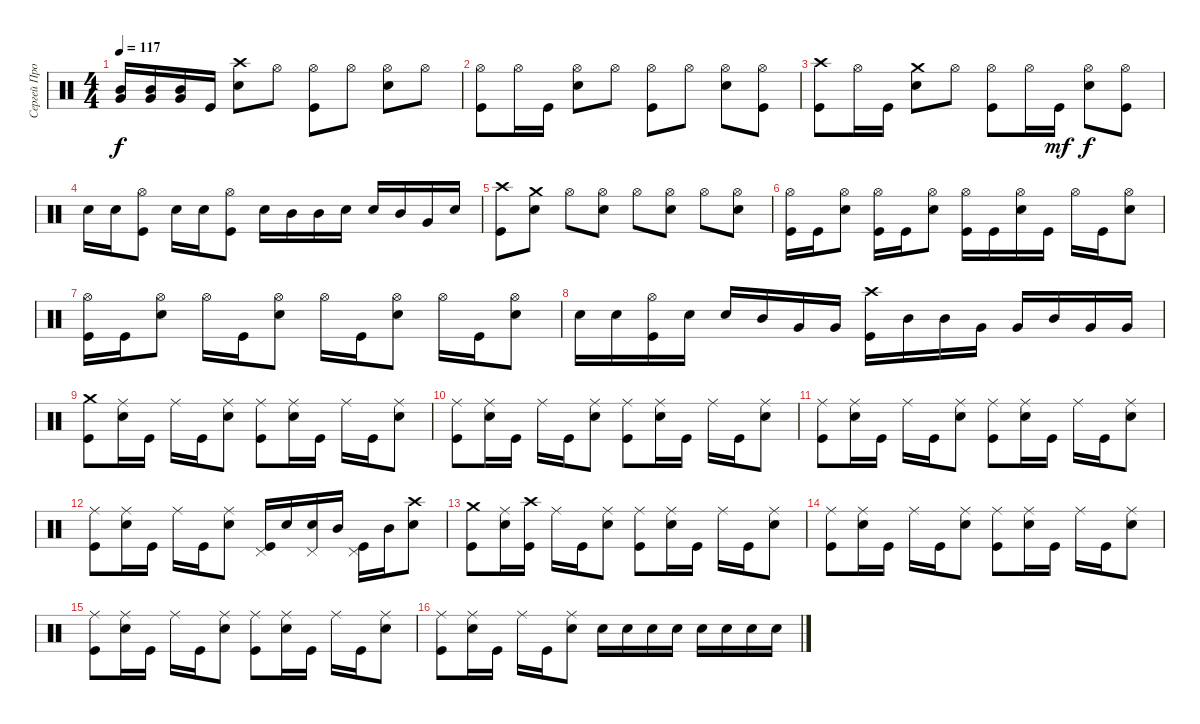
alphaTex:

\track ("Сергей Прокофьев" "Сергей Про") {instrument percussion}
\staff {score}
\articulation defaults
\ts (4 4)
\tempo 117
\clef neutral
\ks c
("Mid Tom (hit)" "Very Low Tom (hit)").16{dy f} ("Mid Tom (hit)" "Very Low Tom (hit)").16 ("Mid Tom (hit)" "Very Low Tom (hit)").16 "Kick (hit)".16 ("Crash high (hit)" "Electric Snare (hit)").8 "Hi-Hat (open)".8 ("Hi-Hat (open)" "Kick (hit)").8 "Hi-Hat (open)".8 ("Hi-Hat (open)" "Electric Snare (hit)").8 "Hi-Hat (open)".8 |
("Hi-Hat (open)" "Kick (hit)").8 "Hi-Hat (open)".16 "Kick (hit)".16 ("Hi-Hat (open)" "Electric Snare (hit)").8 "Hi-Hat (open)".8 ("Hi-Hat (open)" "Kick (hit)").8 "Hi-Hat (open)".8 ("Hi-Hat (open)" "Electric Snare (hit)").8 ("Hi-Hat (open)" "Kick (hit)").8 |
("Crash high (hit)" "Kick (hit)").8 "Hi-Hat (open)".16 "Kick (hit)".16 ("Crash medium (hit)" "Electric Snare (hit)").8 "Hi-Hat (open)".8 ("Hi-Hat (open)" "Kick (hit)").8 "Hi-Hat (open)".16 "Kick (hit)".16{dy mf} ("Hi-Hat (open)" "Electric Snare (hit)").8{dy f} ("Hi-Hat (open)" "Kick (hit)").8 |
"Electric Snare (hit)".16 "Electric Snare (hit)".16 ("Hi-Hat (open)" "Kick (hit)").8 "Electric Snare (hit)".16 "Electric Snare (hit)".16 ("Hi-Hat (open)" "Kick (hit)").8 "Electric Snare (hit)".16 "Mid Tom (hit)".16 "Mid Tom (hit)".16 "Electric Snare (hit)".16 "Electric Snare (hit)".16 "Mid Tom (hit)".16 "Very Low Tom (hit)".16 "Electric Snare (hit)".16 |
("Crash high (hit)" "Kick (hit)").8 ("Crash medium (hit)" "Electric Snare (hit)").8 "Hi-Hat (open)".8 ("Hi-Hat (open)" "Electric Snare (hit)").8 "Hi-Hat (open)".8 ("Hi-Hat (open)" "Electric Snare (hit)").8 "Hi-Hat (open)".8 ("Hi-Hat (open)" "Electric Snare (hit)").8 |
("Hi-Hat (open)" "Kick (hit)").16 "Kick (hit)".16 ("Hi-Hat (open)" "Electric Snare (hit)").8 ("Hi-Hat (open)" "Kick (hit)").16 "Kick (hit)".16 ("Hi-Hat (open)" "Electric Snare (hit)").8 ("Hi-Hat (open)" "Kick (hit)").16 "Kick (hit)".16 ("Hi-Hat (open)" "Electric Snare (hit)").16 "Kick (hit)".16 "Hi-Hat (open)".16 "Kick (hit)".16 ("Hi-Hat (open)" "Electric Snare (hit)").8 |
("Hi-Hat (open)" "Kick (hit)").16 "Kick (hit)".16 ("Hi-Hat (open)" "Electric Snare (hit)").8 "Hi-Hat (open)".16 "Kick (hit)".16 ("Hi-Hat (open)" "Electric Snare (hit)").8 "Hi-Hat (open)".16 "Kick (hit)".16 ("Hi-Hat (open)" "Electric Snare (hit)").8 "Hi-Hat (open)".16 "Kick (hit)".16 ("Hi-Hat (open)" "Electric Snare (hit)").8 |
"Electric Snare (hit)".16 "Electric Snare (hit)".16 ("Hi-Hat (open)" "Kick (hit)").16 "Electric Snare (hit)".16 "Electric Snare (hit)".16 "Mid Tom (hit)".16 "Very Low Tom (hit)".16 "Very Low Tom (hit)".16 ("Crash high (hit)" "Kick (hit)").16 "Mid Tom (hit)".16 "Mid Tom (hit)".16 "Very Low Tom (hit)".16 "Very Low Tom (hit)".16 "Mid Tom (hit)".16 "Very Low Tom (hit)".16 "Very Low Tom (hit)".16 |
("Crash medium (hit)" "Kick (hit)").8 ("Ride (middle)" "Electric Snare (hit)").16 "Kick (hit)".16 "Ride (middle)".16 "Kick (hit)".16 ("Ride (middle)" "Electric Snare (hit)").8 ("Ride (middle)" "Kick (hit)").8 ("Ride (middle)" "Electric Snare (hit)").16 "Kick (hit)".16 "Ride (middle)".16 "Kick (hit)".16 ("Ride (middle)" "Electric Snare (hit)").8 |
("Ride (middle)" "Kick (hit)").8 ("Ride (middle)" "Electric Snare (hit)").16 "Kick (hit)".16 "Ride (middle)".16 "Kick (hit)".16 ("Ride (middle)" "Electric Snare (hit)").8 ("Ride (middle)" "Kick (hit)").8 ("Ride (middle)" "Electric Snare (hit)").16 "Kick (hit)".16 "Ride (middle)".16 "Kick (hit)".16 ("Ride (middle)" "Electric Snare (hit)").8 |
("Ride (middle)" "Kick (hit)").8 ("Ride (middle)" "Electric Snare (hit)").16 "Kick (hit)".16 "Ride (middle)".16 "Kick (hit)".16 ("Ride (middle)" "Electric Snare (hit)").8 ("Ride (middle)" "Kick (hit)").8 ("Ride (middle)" "Electric Snare (hit)").16 "Kick (hit)".16 "Ride (middle)".16 "Kick (hit)".16 ("Ride (middle)" "Electric Snare (hit)").8 |
("Ride (middle)" "Kick (hit)").8 ("Ride (middle)" "Electric Snare (hit)").16 "Kick (hit)".16 "Ride (middle)".16 "Kick (hit)".16 ("Ride (middle)" "Electric Snare (hit)").8 ("Pedal Hi-Hat (hit)" "Kick (hit)").16 "Electric Snare (hit)".16 ("Pedal Hi-Hat (hit)" "Electric Snare (hit)").16 "Mid Tom (hit)".16 ("Pedal Hi-Hat (hit)" "Kick (hit)").16 "Mid Tom (hit)".16 ("Crash high (hit)" "Electric Snare (hit)").8 |
("Crash medium (hit)" "Kick (hit)").8 ("Ride (middle)" "Electric Snare (hit)").16 ("Crash high (hit)" "Kick (hit)").16 "Ride (middle)".16 "Kick (hit)".16 ("Ride (middle)" "Electric Snare (hit)").8 ("Ride (middle)" "Kick (hit)").8 ("Ride (middle)" "Electric Snare (hit)").16 "Kick (hit)".16 "Ride (middle)".16 "Kick (hit)".16 ("Ride (middle)" "Electric Snare (hit)").8 |
("Ride (middle)" "Kick (hit)").8 ("Ride (middle)" "Electric Snare (hit)").16 "Kick (hit)".16 "Ride (middle)".16 "Kick (hit)".16 ("Ride (middle)" "Electric Snare (hit)").8 ("Ride (middle)" "Kick (hit)").8 ("Ride (middle)" "Electric Snare (hit)").16 "Kick (hit)".16 "Ride (middle)".16 "Kick (hit)".16 ("Ride (middle)" "Electric Snare (hit)").8 |
("Ride (middle)" "Kick (hit)").8 ("Ride (middle)" "Electric Snare (hit)").16 "Kick (hit)".16 "Ride (middle)".16 "Kick (hit)".16 ("Ride (middle)" "Electric Snare (hit)").8 ("Ride (middle)" "Kick (hit)").8 ("Ride (middle)" "Electric Snare (hit)").16 "Kick (hit)".16 "Ride (middle)".16 "Kick (hit)".16 ("Ride (middle)" "Electric Snare (hit)").8 |
("Ride (middle)" "Kick (hit)").8 ("Ride (middle)" "Electric Snare (hit)").16 "Kick (hit)".16 "Ride (middle)".16 "Kick (hit)".16 ("Ride (middle)" "Electric Snare (hit)").8 "Electric Snare (hit)".16 "Electric Snare (hit)".16 "Electric Snare (hit)".16 "Electric Snare (hit)".16 "Electric Snare (hit)".16 "Electric Snare (hit)".16 "Electric Snare (hit)".16 "Electric Snare (hit)".16
